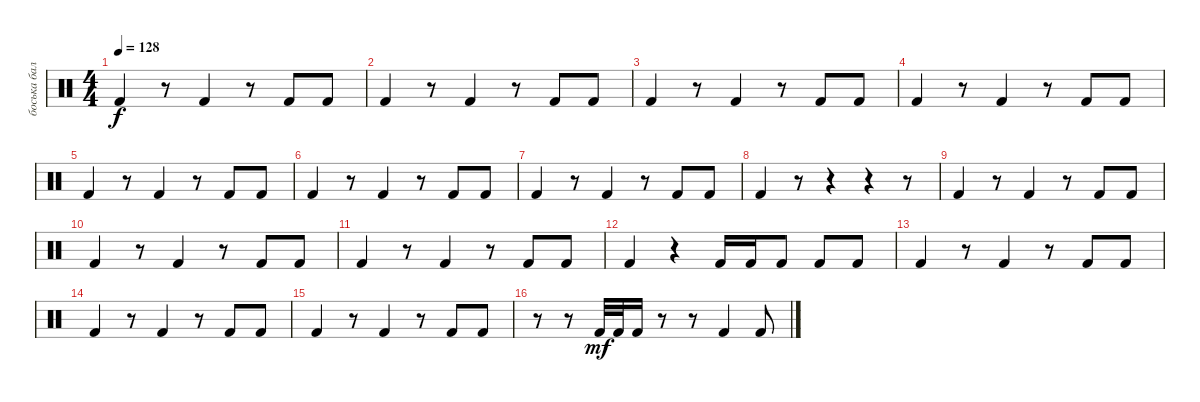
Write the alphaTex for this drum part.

\track ("боська балабаськов" "боська бал") {instrument percussion}
\staff {score}
\articulation defaults
\ts (4 4)
\tempo 128
\clef neutral
\ks c "Kick (hit) 2".4{dy f}
r.8 "Kick (hit) 2".4 r.8 "Kick (hit) 2".8 "Kick (hit) 2".8 |
"Kick (hit) 2".4 r.8 "Kick (hit) 2".4 r.8 "Kick (hit) 2".8 "Kick (hit) 2".8 |
"Kick (hit) 2".4 r.8 "Kick (hit) 2".4 r.8 "Kick (hit) 2".8 "Kick (hit) 2".8 |
"Kick (hit) 2".4 r.8 "Kick (hit) 2".4 r.8 "Kick (hit) 2".8 "Kick (hit) 2".8 |
"Kick (hit) 2".4 r.8 "Kick (hit) 2".4 r.8 "Kick (hit) 2".8 "Kick (hit) 2".8 |
"Kick (hit) 2".4 r.8 "Kick (hit) 2".4 r.8 "Kick (hit) 2".8 "Kick (hit) 2".8 |
"Kick (hit) 2".4 r.8 "Kick (hit) 2".4 r.8 "Kick (hit) 2".8 "Kick (hit) 2".8 |
"Kick (hit) 2".4 r.8 r.4 r.4 r.8 |
"Kick (hit) 2".4 r.8 "Kick (hit) 2".4 r.8 "Kick (hit) 2".8 "Kick (hit) 2".8 |
"Kick (hit) 2".4 r.8 "Kick (hit) 2".4 r.8 "Kick (hit) 2".8 "Kick (hit) 2".8 |
"Kick (hit) 2".4 r.8 "Kick (hit) 2".4 r.8 "Kick (hit) 2".8 "Kick (hit) 2".8 |
"Kick (hit) 2".4 r.4 "Kick (hit) 2".16 "Kick (hit) 2".16 "Kick (hit) 2".8 "Kick (hit) 2".8 "Kick (hit) 2".8 |
"Kick (hit) 2".4 r.8 "Kick (hit) 2".4 r.8 "Kick (hit) 2".8 "Kick (hit) 2".8 |
"Kick (hit) 2".4 r.8 "Kick (hit) 2".4 r.8 "Kick (hit) 2".8 "Kick (hit) 2".8 |
"Kick (hit) 2".4 r.8 "Kick (hit) 2".4 r.8 "Kick (hit) 2".8 "Kick (hit) 2".8 |
r.8 r.8 "Kick (hit) 2".32{dy mf} "Kick (hit) 2".32 "Kick (hit) 2".16 r.8 r.8 "Kick (hit) 2".4 "Kick (hit) 2".8
